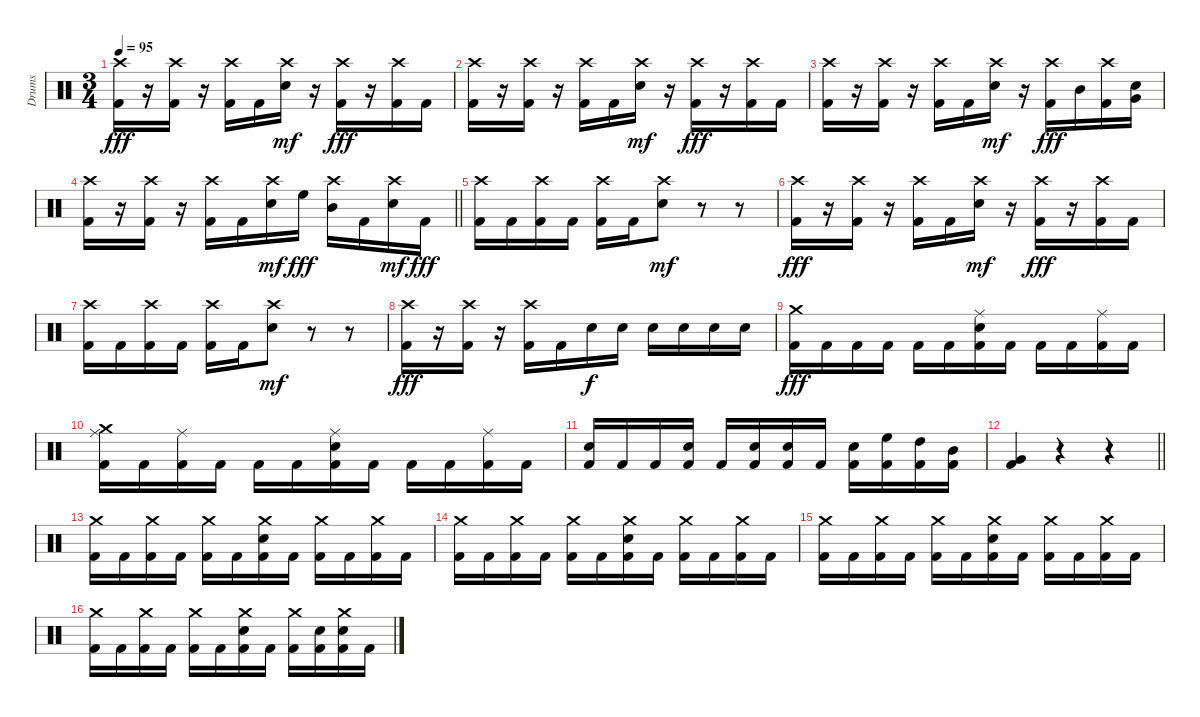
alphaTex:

\track ("Drums" "Drums") {instrument percussion}
\staff {score}
\articulation defaults
\ts (3 4)
\tempo 95
\clef neutral
\ks c
("Crash high (hit)" "Kick (hit) 2").16{dy fff} r.16 ("Crash high (hit)" "Kick (hit) 2").16 r.16 ("Crash high (hit)" "Kick (hit) 2").16 "Kick (hit) 2".16 ("Crash high (hit)" "Snare (hit) 2").16{dy mf} r.16 ("Crash high (hit)" "Kick (hit) 2").16{dy fff} r.16 ("Crash high (hit)" "Kick (hit) 2").16 "Kick (hit) 2".16 |
("Crash high (hit)" "Kick (hit) 2").16 r.16 ("Crash high (hit)" "Kick (hit) 2").16 r.16 ("Crash high (hit)" "Kick (hit) 2").16 "Kick (hit) 2".16 ("Crash high (hit)" "Snare (hit) 2").16{dy mf} r.16 ("Crash high (hit)" "Kick (hit) 2").16{dy fff} r.16 ("Crash high (hit)" "Kick (hit) 2").16 "Kick (hit) 2".16 |
("Crash high (hit)" "Kick (hit) 2").16 r.16 ("Crash high (hit)" "Kick (hit) 2").16 r.16 ("Crash high (hit)" "Kick (hit) 2").16 "Kick (hit) 2".16 ("Crash high (hit)" "Snare (hit) 2").16{dy mf} r.16 ("Crash high (hit)" "Kick (hit) 2").16{dy fff} "Mid Tom (hit)".16 ("Crash high (hit)" "Kick (hit) 2").16 ("Snare (hit) 2" "Very Low Tom (hit)").16 |
\barLineRight lightlight
("Crash high (hit)" "Kick (hit) 2").16 r.16 ("Crash high (hit)" "Kick (hit) 2").16 r.16 ("Crash high (hit)" "Kick (hit) 2").16 "Kick (hit) 2".16 ("Crash high (hit)" "Snare (hit) 2").16{dy mf} "High Floor Tom (hit)".16{dy fff} ("Crash high (hit)" "Mid Tom (hit)").16 "Kick (hit) 2".16 ("Crash high (hit)" "Snare (hit) 2").16{dy mf} "Kick (hit) 2".16{dy fff} |
("Crash high (hit)" "Kick (hit) 2").16 "Kick (hit) 2".16 ("Crash high (hit)" "Kick (hit) 2").16 "Kick (hit) 2".16 ("Crash high (hit)" "Kick (hit) 2").16 "Kick (hit) 2".16 ("Crash high (hit)" "Snare (hit) 2").8{dy mf} r.8 r.8 |
("Crash high (hit)" "Kick (hit) 2").16{dy fff} r.16 ("Crash high (hit)" "Kick (hit) 2").16 r.16 ("Crash high (hit)" "Kick (hit) 2").16 "Kick (hit) 2".16 ("Crash high (hit)" "Snare (hit) 2").16{dy mf} r.16 ("Crash high (hit)" "Kick (hit) 2").16{dy fff} r.16 ("Crash high (hit)" "Kick (hit) 2").16 "Kick (hit) 2".16 |
("Crash high (hit)" "Kick (hit) 2").16 "Kick (hit) 2".16 ("Crash high (hit)" "Kick (hit) 2").16 "Kick (hit) 2".16 ("Crash high (hit)" "Kick (hit) 2").16 "Kick (hit) 2".16 ("Crash high (hit)" "Snare (hit) 2").8{dy mf} r.8 r.8 |
("Crash high (hit)" "Kick (hit) 2").16{dy fff} r.16 ("Crash high (hit)" "Kick (hit) 2").16 r.16 ("Crash high (hit)" "Kick (hit) 2").16 "Kick (hit) 2".16 "Snare (hit) 2".16{dy f} "Snare (hit) 2".16 "Snare (hit) 2".16 "Snare (hit) 2".16 "Snare (hit) 2".16 "Snare (hit) 2".16 |
("Crash medium (hit)" "Kick (hit) 2").16{dy fff} "Kick (hit) 2".16 "Kick (hit) 2".16 "Kick (hit) 2".16 "Kick (hit) 2".16 "Kick (hit) 2".16 ("Ride (middle)" "Snare (hit) 2" "Kick (hit) 2").16 "Kick (hit) 2".16 "Kick (hit) 2".16 "Kick (hit) 2".16 ("Ride (middle)" "Kick (hit) 2").16 "Kick (hit) 2".16 |
("Crash medium (hit)" "Ride (middle)" "Kick (hit) 2").16 "Kick (hit) 2".16 ("Ride (middle)" "Kick (hit) 2").16 "Kick (hit) 2".16 "Kick (hit) 2".16 "Kick (hit) 2".16 ("Ride (middle)" "Snare (hit) 2" "Kick (hit) 2").16 "Kick (hit) 2".16 "Kick (hit) 2".16 "Kick (hit) 2".16 ("Ride (middle)" "Kick (hit) 2").16 "Kick (hit) 2".16 |
("Snare (hit) 2" "Kick (hit) 2").16 "Kick (hit) 2".16 "Kick (hit) 2".16 ("Snare (hit) 2" "Kick (hit) 2").16 "Kick (hit) 2".16 ("Snare (hit) 2" "Kick (hit) 2").16 ("Snare (hit) 2" "Kick (hit) 2").16 "Kick (hit) 2".16 ("Snare (hit) 2" "Kick (hit) 2").16 ("High Floor Tom (hit)" "Kick (hit) 2").16 ("High Tom (hit)" "Kick (hit) 2").16 ("Mid Tom (hit)" "Kick (hit) 2").16 |
\barLineRight lightlight
("Very Low Tom (hit)" "Kick (hit) 2").4 r.4 r.4 |
("Crash medium (hit)" "Kick (hit) 2").16 "Kick (hit) 2".16 ("Crash medium (hit)" "Kick (hit) 2").16 "Kick (hit) 2".16 ("Crash medium (hit)" "Kick (hit) 2").16 "Kick (hit) 2".16 ("Crash medium (hit)" "Snare (hit) 2" "Kick (hit) 2").16 "Kick (hit) 2".16 ("Crash medium (hit)" "Kick (hit) 2").16 "Kick (hit) 2".16 ("Crash medium (hit)" "Kick (hit) 2").16 "Kick (hit) 2".16 |
("Crash medium (hit)" "Kick (hit) 2").16 "Kick (hit) 2".16 ("Crash medium (hit)" "Kick (hit) 2").16 "Kick (hit) 2".16 ("Crash medium (hit)" "Kick (hit) 2").16 "Kick (hit) 2".16 ("Crash medium (hit)" "Snare (hit) 2" "Kick (hit) 2").16 "Kick (hit) 2".16 ("Crash medium (hit)" "Kick (hit) 2").16 "Kick (hit) 2".16 ("Crash medium (hit)" "Kick (hit) 2").16 "Kick (hit) 2".16 |
("Crash medium (hit)" "Kick (hit) 2").16 "Kick (hit) 2".16 ("Crash medium (hit)" "Kick (hit) 2").16 "Kick (hit) 2".16 ("Crash medium (hit)" "Kick (hit) 2").16 "Kick (hit) 2".16 ("Crash medium (hit)" "Snare (hit) 2" "Kick (hit) 2").16 "Kick (hit) 2".16 ("Crash medium (hit)" "Kick (hit) 2").16 "Kick (hit) 2".16 ("Crash medium (hit)" "Kick (hit) 2").16 "Kick (hit) 2".16 |
("Crash medium (hit)" "Kick (hit) 2").16 "Kick (hit) 2".16 ("Crash medium (hit)" "Kick (hit) 2").16 "Kick (hit) 2".16 ("Crash medium (hit)" "Kick (hit) 2").16 "Kick (hit) 2".16 ("Crash medium (hit)" "Snare (hit) 2" "Kick (hit) 2").16 "Kick (hit) 2".16 ("Crash medium (hit)" "Kick (hit) 2").16 ("Snare (hit) 2" "Kick (hit) 2").16 ("Crash medium (hit)" "Snare (hit) 2" "Kick (hit) 2").16 "Kick (hit) 2".16
